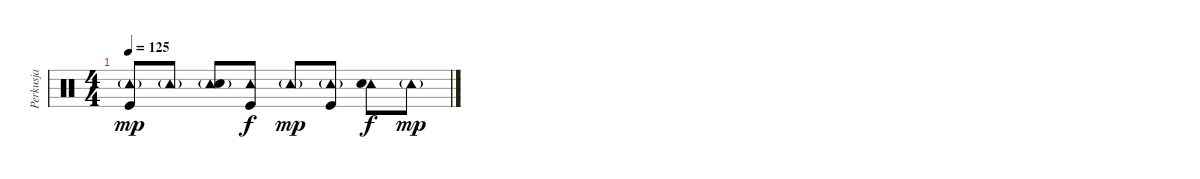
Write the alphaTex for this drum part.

\track ("Perkusja" "Perkusja") {instrument percussion}
\staff {score}
\articulation defaults
\ts (4 4)
\tempo 125
\clef neutral
\ks c
("Tambourine (hit)"{g} "Kick (hit)").8{dy mp} "Tambourine (hit)"{g}.8 ("Tambourine (hit)"{g} "Snare (hit) 2").8 ("Tambourine (hit)" "Kick (hit)").8{dy f} "Tambourine (hit)"{g}.8{dy mp} ("Tambourine (hit)"{g} "Kick (hit)").8 ("Tambourine (hit)" "Snare (hit) 2").8{dy f} "Tambourine (hit)"{g}.8{dy mp}
